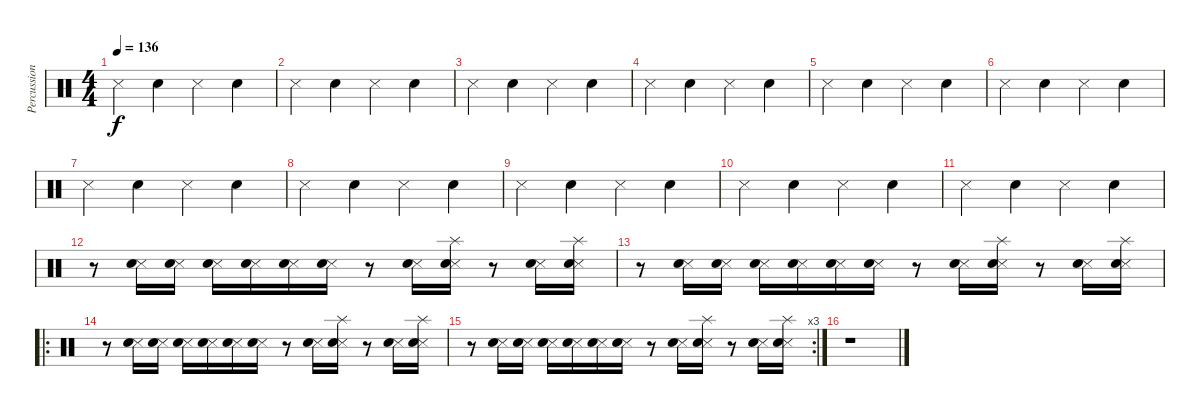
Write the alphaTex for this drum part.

\track ("Percussions" "Percussion") {instrument percussion}
\staff {score}
\articulation defaults
\ts (4 4)
\tempo 136
\clef neutral
\ks c "Snare (side stick) 3".4{dy f} "Electric Snare (hit)".4 "Snare (side stick) 3".4 "Electric Snare (hit)".4
|
"Snare (side stick) 3".4 "Electric Snare (hit)".4 "Snare (side stick) 3".4 "Electric Snare (hit)".4 |
"Snare (side stick) 3".4 "Electric Snare (hit)".4 "Snare (side stick) 3".4 "Electric Snare (hit)".4 |
"Snare (side stick) 3".4 "Electric Snare (hit)".4 "Snare (side stick) 3".4 "Electric Snare (hit)".4 |
"Snare (side stick) 3".4 "Electric Snare (hit)".4 "Snare (side stick) 3".4 "Electric Snare (hit)".4 |
"Snare (side stick) 3".4 "Electric Snare (hit)".4 "Snare (side stick) 3".4 "Electric Snare (hit)".4 |
"Snare (side stick) 3".4 "Electric Snare (hit)".4 "Snare (side stick) 3".4 "Electric Snare (hit)".4 |
"Snare (side stick) 3".4 "Electric Snare (hit)".4 "Snare (side stick) 3".4 "Electric Snare (hit)".4 |
"Snare (side stick) 3".4 "Electric Snare (hit)".4 "Snare (side stick) 3".4 "Electric Snare (hit)".4 |
"Snare (side stick) 3".4 "Electric Snare (hit)".4 "Snare (side stick) 3".4 "Electric Snare (hit)".4 |
"Snare (side stick) 3".4 "Electric Snare (hit)".4 "Snare (side stick) 3".4 "Electric Snare (hit)".4 |
r.8 ("Snare (side stick) 3" "Electric Snare (hit)").16 ("Snare (side stick) 3" "Electric Snare (hit)").16 ("Snare (side stick) 3" "Electric Snare (hit)").16 ("Snare (side stick) 3" "Electric Snare (hit)").16 ("Snare (side stick) 3" "Electric Snare (hit)").16 ("Snare (side stick) 3" "Electric Snare (hit)").16 r.8 ("Snare (side stick) 3" "Electric Snare (hit)").16 ("Snare (side stick) 3" "Electric Snare (hit)" "Splash (hit)").16 r.8 ("Snare (side stick) 3" "Electric Snare (hit)").16 ("Snare (side stick) 3" "Electric Snare (hit)" "Splash (hit)").16 |
r.8 ("Snare (side stick) 3" "Electric Snare (hit)").16 ("Snare (side stick) 3" "Electric Snare (hit)").16 ("Snare (side stick) 3" "Electric Snare (hit)").16 ("Snare (side stick) 3" "Electric Snare (hit)").16 ("Snare (side stick) 3" "Electric Snare (hit)").16 ("Snare (side stick) 3" "Electric Snare (hit)").16 r.8 ("Snare (side stick) 3" "Electric Snare (hit)").16 ("Snare (side stick) 3" "Electric Snare (hit)" "Splash (hit)").16 r.8 ("Snare (side stick) 3" "Electric Snare (hit)").16 ("Snare (side stick) 3" "Electric Snare (hit)" "Splash (hit)").16 |
\ro
r.8 ("Snare (side stick) 3" "Electric Snare (hit)").16 ("Snare (side stick) 3" "Electric Snare (hit)").16 ("Snare (side stick) 3" "Electric Snare (hit)").16 ("Snare (side stick) 3" "Electric Snare (hit)").16 ("Snare (side stick) 3" "Electric Snare (hit)").16 ("Snare (side stick) 3" "Electric Snare (hit)").16 r.8 ("Snare (side stick) 3" "Electric Snare (hit)").16 ("Snare (side stick) 3" "Electric Snare (hit)" "Splash (hit)").16 r.8 ("Snare (side stick) 3" "Electric Snare (hit)").16 ("Snare (side stick) 3" "Electric Snare (hit)" "Splash (hit)").16 |
\rc 3
r.8 ("Snare (side stick) 3" "Electric Snare (hit)").16 ("Snare (side stick) 3" "Electric Snare (hit)").16 ("Snare (side stick) 3" "Electric Snare (hit)").16 ("Snare (side stick) 3" "Electric Snare (hit)").16 ("Snare (side stick) 3" "Electric Snare (hit)").16 ("Snare (side stick) 3" "Electric Snare (hit)").16 r.8 ("Snare (side stick) 3" "Electric Snare (hit)").16 ("Snare (side stick) 3" "Electric Snare (hit)" "Splash (hit)").16 r.8 ("Snare (side stick) 3" "Electric Snare (hit)").16 ("Snare (side stick) 3" "Electric Snare (hit)" "Splash (hit)").16 |
r.1
